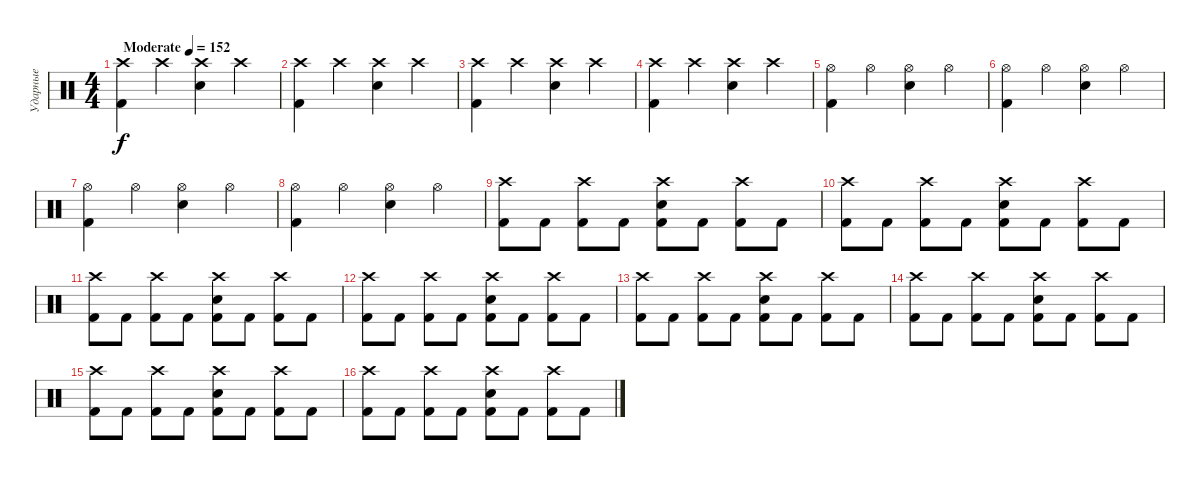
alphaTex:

\track ("Ударные" "Ударные") {instrument percussion}
\staff {score}
\articulation defaults
\ts (4 4)
\tempo (152 "Moderate")
\clef neutral
\ks c
("Crash high (hit)" "Kick (hit) 2").4{dy f} "Crash high (hit)".4 ("Crash high (hit)" "Electric Snare (hit)").4 "Crash high (hit)".4 |
("Crash high (hit)" "Kick (hit) 2").4 "Crash high (hit)".4 ("Crash high (hit)" "Electric Snare (hit)").4 "Crash high (hit)".4 |
("Crash high (hit)" "Kick (hit) 2").4 "Crash high (hit)".4 ("Crash high (hit)" "Electric Snare (hit)").4 "Crash high (hit)".4 |
("Crash high (hit)" "Kick (hit) 2").4 "Crash high (hit)".4 ("Crash high (hit)" "Electric Snare (hit)").4 "Crash high (hit)".4 |
("Hi-Hat (open)" "Kick (hit) 2").4 "Hi-Hat (open)".4 ("Hi-Hat (open)" "Electric Snare (hit)").4 "Hi-Hat (open)".4 |
("Hi-Hat (open)" "Kick (hit) 2").4 "Hi-Hat (open)".4 ("Hi-Hat (open)" "Electric Snare (hit)").4 "Hi-Hat (open)".4 |
("Hi-Hat (open)" "Kick (hit) 2").4 "Hi-Hat (open)".4 ("Hi-Hat (open)" "Electric Snare (hit)").4 "Hi-Hat (open)".4 |
("Hi-Hat (open)" "Kick (hit) 2").4 "Hi-Hat (open)".4 ("Hi-Hat (open)" "Electric Snare (hit)").4 "Hi-Hat (open)".4 |
("Crash high (hit)" "Kick (hit) 2").8 "Kick (hit) 2".8 ("Crash high (hit)" "Kick (hit) 2").8 "Kick (hit) 2".8 ("Crash high (hit)" "Electric Snare (hit)" "Kick (hit) 2").8 "Kick (hit) 2".8 ("Crash high (hit)" "Kick (hit) 2").8 "Kick (hit) 2".8 |
("Crash high (hit)" "Kick (hit) 2").8 "Kick (hit) 2".8 ("Crash high (hit)" "Kick (hit) 2").8 "Kick (hit) 2".8 ("Crash high (hit)" "Electric Snare (hit)" "Kick (hit) 2").8 "Kick (hit) 2".8 ("Crash high (hit)" "Kick (hit) 2").8 "Kick (hit) 2".8 |
("Crash high (hit)" "Kick (hit) 2").8 "Kick (hit) 2".8 ("Crash high (hit)" "Kick (hit) 2").8 "Kick (hit) 2".8 ("Crash high (hit)" "Electric Snare (hit)" "Kick (hit) 2").8 "Kick (hit) 2".8 ("Crash high (hit)" "Kick (hit) 2").8 "Kick (hit) 2".8 |
("Crash high (hit)" "Kick (hit) 2").8 "Kick (hit) 2".8 ("Crash high (hit)" "Kick (hit) 2").8 "Kick (hit) 2".8 ("Crash high (hit)" "Electric Snare (hit)" "Kick (hit) 2").8 "Kick (hit) 2".8 ("Crash high (hit)" "Kick (hit) 2").8 "Kick (hit) 2".8 |
("Crash high (hit)" "Kick (hit) 2").8 "Kick (hit) 2".8 ("Crash high (hit)" "Kick (hit) 2").8 "Kick (hit) 2".8 ("Crash high (hit)" "Electric Snare (hit)" "Kick (hit) 2").8 "Kick (hit) 2".8 ("Crash high (hit)" "Kick (hit) 2").8 "Kick (hit) 2".8 |
("Crash high (hit)" "Kick (hit) 2").8 "Kick (hit) 2".8 ("Crash high (hit)" "Kick (hit) 2").8 "Kick (hit) 2".8 ("Crash high (hit)" "Electric Snare (hit)" "Kick (hit) 2").8 "Kick (hit) 2".8 ("Crash high (hit)" "Kick (hit) 2").8 "Kick (hit) 2".8 |
("Crash high (hit)" "Kick (hit) 2").8 "Kick (hit) 2".8 ("Crash high (hit)" "Kick (hit) 2").8 "Kick (hit) 2".8 ("Crash high (hit)" "Electric Snare (hit)" "Kick (hit) 2").8 "Kick (hit) 2".8 ("Crash high (hit)" "Kick (hit) 2").8 "Kick (hit) 2".8 |
("Crash high (hit)" "Kick (hit) 2").8 "Kick (hit) 2".8 ("Crash high (hit)" "Kick (hit) 2").8 "Kick (hit) 2".8 ("Crash high (hit)" "Electric Snare (hit)" "Kick (hit) 2").8 "Kick (hit) 2".8 ("Crash high (hit)" "Kick (hit) 2").8 "Kick (hit) 2".8
